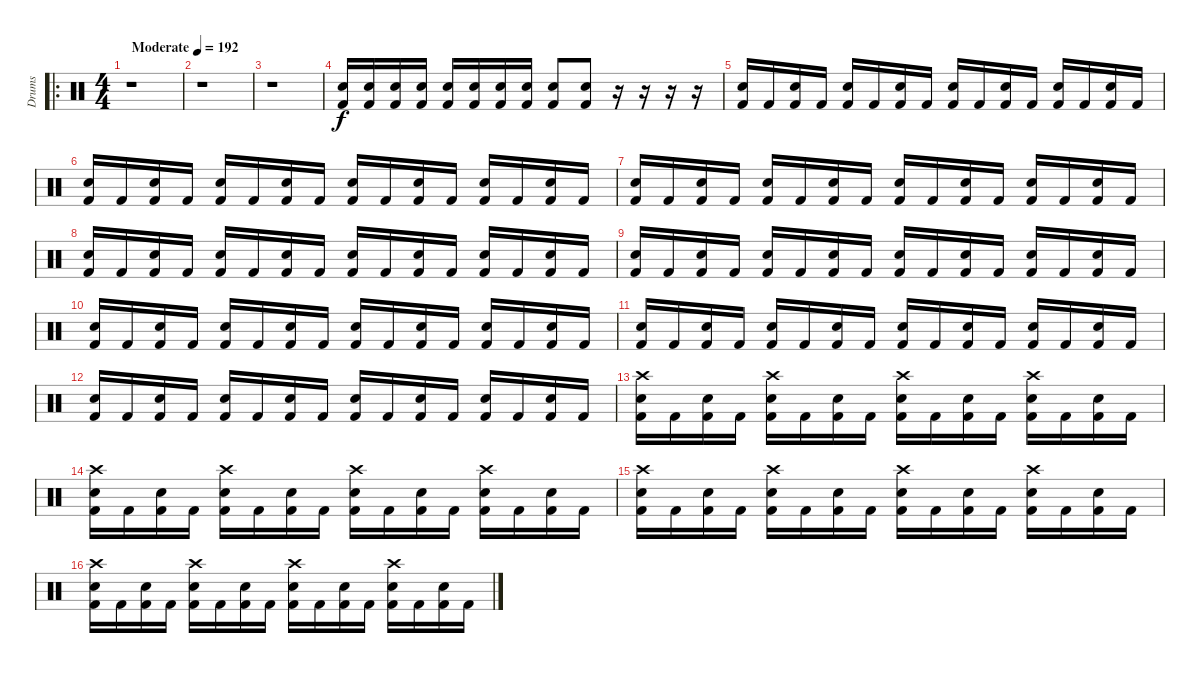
\track ("Drums" "Drums") {instrument percussion}
\staff {score}
\articulation defaults
\ro
\ts (4 4)
\tempo (192 "Moderate")
\clef neutral
\ks c
r.1{dy f} |
r.1 |
r.1 |
("Kick (hit) 2" "Electric Snare (hit)").16 ("Kick (hit) 2" "Electric Snare (hit)").16 ("Kick (hit) 2" "Electric Snare (hit)").16 ("Kick (hit) 2" "Electric Snare (hit)").16 ("Kick (hit) 2" "Electric Snare (hit)").16 ("Kick (hit) 2" "Electric Snare (hit)").16 ("Kick (hit) 2" "Electric Snare (hit)").16 ("Kick (hit) 2" "Electric Snare (hit)").16 ("Kick (hit) 2" "Electric Snare (hit)").8 ("Kick (hit) 2" "Electric Snare (hit)").8 r.16 r.16 r.16 r.16 |
("Kick (hit) 2" "Electric Snare (hit)").16 "Kick (hit) 2".16 ("Kick (hit) 2" "Electric Snare (hit)").16 "Kick (hit) 2".16 ("Kick (hit) 2" "Electric Snare (hit)").16 "Kick (hit) 2".16 ("Kick (hit) 2" "Electric Snare (hit)").16 "Kick (hit) 2".16 ("Kick (hit) 2" "Electric Snare (hit)").16 "Kick (hit) 2".16 ("Kick (hit) 2" "Electric Snare (hit)").16 "Kick (hit) 2".16 ("Kick (hit) 2" "Electric Snare (hit)").16 "Kick (hit) 2".16 ("Kick (hit) 2" "Electric Snare (hit)").16 "Kick (hit) 2".16 |
("Kick (hit) 2" "Electric Snare (hit)").16 "Kick (hit) 2".16 ("Kick (hit) 2" "Electric Snare (hit)").16 "Kick (hit) 2".16 ("Kick (hit) 2" "Electric Snare (hit)").16 "Kick (hit) 2".16 ("Kick (hit) 2" "Electric Snare (hit)").16 "Kick (hit) 2".16 ("Kick (hit) 2" "Electric Snare (hit)").16 "Kick (hit) 2".16 ("Kick (hit) 2" "Electric Snare (hit)").16 "Kick (hit) 2".16 ("Kick (hit) 2" "Electric Snare (hit)").16 "Kick (hit) 2".16 ("Kick (hit) 2" "Electric Snare (hit)").16 "Kick (hit) 2".16 |
("Kick (hit) 2" "Electric Snare (hit)").16 "Kick (hit) 2".16 ("Kick (hit) 2" "Electric Snare (hit)").16 "Kick (hit) 2".16 ("Kick (hit) 2" "Electric Snare (hit)").16 "Kick (hit) 2".16 ("Kick (hit) 2" "Electric Snare (hit)").16 "Kick (hit) 2".16 ("Kick (hit) 2" "Electric Snare (hit)").16 "Kick (hit) 2".16 ("Kick (hit) 2" "Electric Snare (hit)").16 "Kick (hit) 2".16 ("Kick (hit) 2" "Electric Snare (hit)").16 "Kick (hit) 2".16 ("Kick (hit) 2" "Electric Snare (hit)").16 "Kick (hit) 2".16 |
("Kick (hit) 2" "Electric Snare (hit)").16 "Kick (hit) 2".16 ("Kick (hit) 2" "Electric Snare (hit)").16 "Kick (hit) 2".16 ("Kick (hit) 2" "Electric Snare (hit)").16 "Kick (hit) 2".16 ("Kick (hit) 2" "Electric Snare (hit)").16 "Kick (hit) 2".16 ("Kick (hit) 2" "Electric Snare (hit)").16 "Kick (hit) 2".16 ("Kick (hit) 2" "Electric Snare (hit)").16 "Kick (hit) 2".16 ("Kick (hit) 2" "Electric Snare (hit)").16 "Kick (hit) 2".16 ("Kick (hit) 2" "Electric Snare (hit)").16 "Kick (hit) 2".16 |
("Kick (hit) 2" "Electric Snare (hit)").16 "Kick (hit) 2".16 ("Kick (hit) 2" "Electric Snare (hit)").16 "Kick (hit) 2".16 ("Kick (hit) 2" "Electric Snare (hit)").16 "Kick (hit) 2".16 ("Kick (hit) 2" "Electric Snare (hit)").16 "Kick (hit) 2".16 ("Kick (hit) 2" "Electric Snare (hit)").16 "Kick (hit) 2".16 ("Kick (hit) 2" "Electric Snare (hit)").16 "Kick (hit) 2".16 ("Kick (hit) 2" "Electric Snare (hit)").16 "Kick (hit) 2".16 ("Kick (hit) 2" "Electric Snare (hit)").16 "Kick (hit) 2".16 |
("Kick (hit) 2" "Electric Snare (hit)").16 "Kick (hit) 2".16 ("Kick (hit) 2" "Electric Snare (hit)").16 "Kick (hit) 2".16 ("Kick (hit) 2" "Electric Snare (hit)").16 "Kick (hit) 2".16 ("Kick (hit) 2" "Electric Snare (hit)").16 "Kick (hit) 2".16 ("Kick (hit) 2" "Electric Snare (hit)").16 "Kick (hit) 2".16 ("Kick (hit) 2" "Electric Snare (hit)").16 "Kick (hit) 2".16 ("Kick (hit) 2" "Electric Snare (hit)").16 "Kick (hit) 2".16 ("Kick (hit) 2" "Electric Snare (hit)").16 "Kick (hit) 2".16 |
("Kick (hit) 2" "Electric Snare (hit)").16 "Kick (hit) 2".16 ("Kick (hit) 2" "Electric Snare (hit)").16 "Kick (hit) 2".16 ("Kick (hit) 2" "Electric Snare (hit)").16 "Kick (hit) 2".16 ("Kick (hit) 2" "Electric Snare (hit)").16 "Kick (hit) 2".16 ("Kick (hit) 2" "Electric Snare (hit)").16 "Kick (hit) 2".16 ("Kick (hit) 2" "Electric Snare (hit)").16 "Kick (hit) 2".16 ("Kick (hit) 2" "Electric Snare (hit)").16 "Kick (hit) 2".16 ("Kick (hit) 2" "Electric Snare (hit)").16 "Kick (hit) 2".16 |
("Kick (hit) 2" "Electric Snare (hit)").16 "Kick (hit) 2".16 ("Kick (hit) 2" "Electric Snare (hit)").16 "Kick (hit) 2".16 ("Kick (hit) 2" "Electric Snare (hit)").16 "Kick (hit) 2".16 ("Kick (hit) 2" "Electric Snare (hit)").16 "Kick (hit) 2".16 ("Kick (hit) 2" "Electric Snare (hit)").16 "Kick (hit) 2".16 ("Kick (hit) 2" "Electric Snare (hit)").16 "Kick (hit) 2".16 ("Kick (hit) 2" "Electric Snare (hit)").16 "Kick (hit) 2".16 ("Kick (hit) 2" "Electric Snare (hit)").16 "Kick (hit) 2".16 |
("Crash high (hit)" "Kick (hit) 2" "Electric Snare (hit)").16 "Kick (hit) 2".16 ("Kick (hit) 2" "Electric Snare (hit)").16 "Kick (hit) 2".16 ("Crash high (hit)" "Kick (hit) 2" "Electric Snare (hit)").16 "Kick (hit) 2".16 ("Kick (hit) 2" "Electric Snare (hit)").16 "Kick (hit) 2".16 ("Crash high (hit)" "Kick (hit) 2" "Electric Snare (hit)").16 "Kick (hit) 2".16 ("Kick (hit) 2" "Electric Snare (hit)").16 "Kick (hit) 2".16 ("Crash high (hit)" "Kick (hit) 2" "Electric Snare (hit)").16 "Kick (hit) 2".16 ("Kick (hit) 2" "Electric Snare (hit)").16 "Kick (hit) 2".16 |
("Crash high (hit)" "Kick (hit) 2" "Electric Snare (hit)").16 "Kick (hit) 2".16 ("Kick (hit) 2" "Electric Snare (hit)").16 "Kick (hit) 2".16 ("Crash high (hit)" "Kick (hit) 2" "Electric Snare (hit)").16 "Kick (hit) 2".16 ("Kick (hit) 2" "Electric Snare (hit)").16 "Kick (hit) 2".16 ("Crash high (hit)" "Kick (hit) 2" "Electric Snare (hit)").16 "Kick (hit) 2".16 ("Kick (hit) 2" "Electric Snare (hit)").16 "Kick (hit) 2".16 ("Crash high (hit)" "Kick (hit) 2" "Electric Snare (hit)").16 "Kick (hit) 2".16 ("Kick (hit) 2" "Electric Snare (hit)").16 "Kick (hit) 2".16 |
("Crash high (hit)" "Kick (hit) 2" "Electric Snare (hit)").16 "Kick (hit) 2".16 ("Kick (hit) 2" "Electric Snare (hit)").16 "Kick (hit) 2".16 ("Crash high (hit)" "Kick (hit) 2" "Electric Snare (hit)").16 "Kick (hit) 2".16 ("Kick (hit) 2" "Electric Snare (hit)").16 "Kick (hit) 2".16 ("Crash high (hit)" "Kick (hit) 2" "Electric Snare (hit)").16 "Kick (hit) 2".16 ("Kick (hit) 2" "Electric Snare (hit)").16 "Kick (hit) 2".16 ("Crash high (hit)" "Kick (hit) 2" "Electric Snare (hit)").16 "Kick (hit) 2".16 ("Kick (hit) 2" "Electric Snare (hit)").16 "Kick (hit) 2".16 |
("Crash high (hit)" "Kick (hit) 2" "Electric Snare (hit)").16 "Kick (hit) 2".16 ("Kick (hit) 2" "Electric Snare (hit)").16 "Kick (hit) 2".16 ("Crash high (hit)" "Kick (hit) 2" "Electric Snare (hit)").16 "Kick (hit) 2".16 ("Kick (hit) 2" "Electric Snare (hit)").16 "Kick (hit) 2".16 ("Crash high (hit)" "Kick (hit) 2" "Electric Snare (hit)").16 "Kick (hit) 2".16 ("Kick (hit) 2" "Electric Snare (hit)").16 "Kick (hit) 2".16 ("Crash high (hit)" "Kick (hit) 2" "Electric Snare (hit)").16 "Kick (hit) 2".16 ("Kick (hit) 2" "Electric Snare (hit)").16 "Kick (hit) 2".16
